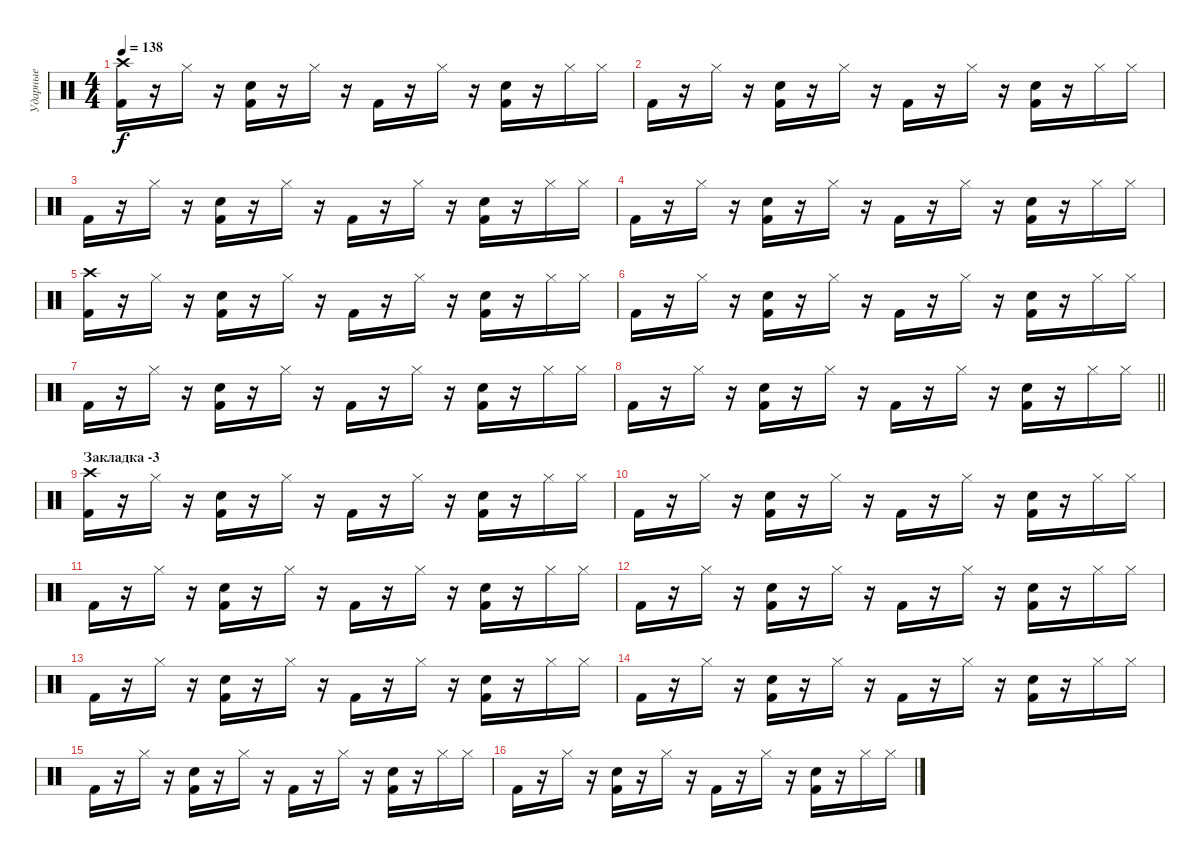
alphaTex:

\track ("Ударные" "Ударные") {instrument percussion}
\staff {score}
\articulation defaults
\ts (4 4)
\tempo 138
\clef neutral
\ks c
("Crash high (hit)" "Kick (hit) 2").16{dy f} r.16 "Hi-Hat (closed)".16 r.16 ("Electric Snare (hit)" "Kick (hit) 2").16 r.16 "Hi-Hat (closed)".16 r.16 "Kick (hit) 2".16 r.16 "Hi-Hat (closed)".16 r.16 ("Electric Snare (hit)" "Kick (hit) 2").16 r.16 "Hi-Hat (closed)".16 "Hi-Hat (closed)".16 |
"Kick (hit) 2".16 r.16 "Hi-Hat (closed)".16 r.16 ("Electric Snare (hit)" "Kick (hit) 2").16 r.16 "Hi-Hat (closed)".16 r.16 "Kick (hit) 2".16 r.16 "Hi-Hat (closed)".16 r.16 ("Electric Snare (hit)" "Kick (hit) 2").16 r.16 "Hi-Hat (closed)".16 "Hi-Hat (closed)".16 |
"Kick (hit) 2".16 r.16 "Hi-Hat (closed)".16 r.16 ("Electric Snare (hit)" "Kick (hit) 2").16 r.16 "Hi-Hat (closed)".16 r.16 "Kick (hit) 2".16 r.16 "Hi-Hat (closed)".16 r.16 ("Electric Snare (hit)" "Kick (hit) 2").16 r.16 "Hi-Hat (closed)".16 "Hi-Hat (closed)".16 |
"Kick (hit) 2".16 r.16 "Hi-Hat (closed)".16 r.16 ("Electric Snare (hit)" "Kick (hit) 2").16 r.16 "Hi-Hat (closed)".16 r.16 "Kick (hit) 2".16 r.16 "Hi-Hat (closed)".16 r.16 ("Electric Snare (hit)" "Kick (hit) 2").16 r.16 "Hi-Hat (closed)".16 "Hi-Hat (closed)".16 |
("Crash high (hit)" "Kick (hit) 2").16 r.16 "Hi-Hat (closed)".16 r.16 ("Electric Snare (hit)" "Kick (hit) 2").16 r.16 "Hi-Hat (closed)".16 r.16 "Kick (hit) 2".16 r.16 "Hi-Hat (closed)".16 r.16 ("Electric Snare (hit)" "Kick (hit) 2").16 r.16 "Hi-Hat (closed)".16 "Hi-Hat (closed)".16 |
"Kick (hit) 2".16 r.16 "Hi-Hat (closed)".16 r.16 ("Electric Snare (hit)" "Kick (hit) 2").16 r.16 "Hi-Hat (closed)".16 r.16 "Kick (hit) 2".16 r.16 "Hi-Hat (closed)".16 r.16 ("Electric Snare (hit)" "Kick (hit) 2").16 r.16 "Hi-Hat (closed)".16 "Hi-Hat (closed)".16 |
"Kick (hit) 2".16 r.16 "Hi-Hat (closed)".16 r.16 ("Electric Snare (hit)" "Kick (hit) 2").16 r.16 "Hi-Hat (closed)".16 r.16 "Kick (hit) 2".16 r.16 "Hi-Hat (closed)".16 r.16 ("Electric Snare (hit)" "Kick (hit) 2").16 r.16 "Hi-Hat (closed)".16 "Hi-Hat (closed)".16 |
\barLineRight lightlight "Kick (hit) 2".16
r.16 "Hi-Hat (closed)".16 r.16 ("Electric Snare (hit)" "Kick (hit) 2").16 r.16 "Hi-Hat (closed)".16 r.16 "Kick (hit) 2".16 r.16 "Hi-Hat (closed)".16 r.16 ("Electric Snare (hit)" "Kick (hit) 2").16 r.16 "Hi-Hat (closed)".16 "Hi-Hat (closed)".16 |
\section ("" "Закладка -3")
("Crash high (hit)" "Kick (hit) 2").16 r.16 "Hi-Hat (closed)".16 r.16 ("Electric Snare (hit)" "Kick (hit) 2").16 r.16 "Hi-Hat (closed)".16 r.16 "Kick (hit) 2".16 r.16 "Hi-Hat (closed)".16 r.16 ("Electric Snare (hit)" "Kick (hit) 2").16 r.16 "Hi-Hat (closed)".16 "Hi-Hat (closed)".16 |
"Kick (hit) 2".16 r.16 "Hi-Hat (closed)".16 r.16 ("Electric Snare (hit)" "Kick (hit) 2").16 r.16 "Hi-Hat (closed)".16 r.16 "Kick (hit) 2".16 r.16 "Hi-Hat (closed)".16 r.16 ("Electric Snare (hit)" "Kick (hit) 2").16 r.16 "Hi-Hat (closed)".16 "Hi-Hat (closed)".16 |
"Kick (hit) 2".16 r.16 "Hi-Hat (closed)".16 r.16 ("Electric Snare (hit)" "Kick (hit) 2").16 r.16 "Hi-Hat (closed)".16 r.16 "Kick (hit) 2".16 r.16 "Hi-Hat (closed)".16 r.16 ("Electric Snare (hit)" "Kick (hit) 2").16 r.16 "Hi-Hat (closed)".16 "Hi-Hat (closed)".16 |
"Kick (hit) 2".16 r.16 "Hi-Hat (closed)".16 r.16 ("Electric Snare (hit)" "Kick (hit) 2").16 r.16 "Hi-Hat (closed)".16 r.16 "Kick (hit) 2".16 r.16 "Hi-Hat (closed)".16 r.16 ("Electric Snare (hit)" "Kick (hit) 2").16 r.16 "Hi-Hat (closed)".16 "Hi-Hat (closed)".16 |
"Kick (hit) 2".16 r.16 "Hi-Hat (closed)".16 r.16 ("Electric Snare (hit)" "Kick (hit) 2").16 r.16 "Hi-Hat (closed)".16 r.16 "Kick (hit) 2".16 r.16 "Hi-Hat (closed)".16 r.16 ("Electric Snare (hit)" "Kick (hit) 2").16 r.16 "Hi-Hat (closed)".16 "Hi-Hat (closed)".16 |
"Kick (hit) 2".16 r.16 "Hi-Hat (closed)".16 r.16 ("Electric Snare (hit)" "Kick (hit) 2").16 r.16 "Hi-Hat (closed)".16 r.16 "Kick (hit) 2".16 r.16 "Hi-Hat (closed)".16 r.16 ("Electric Snare (hit)" "Kick (hit) 2").16 r.16 "Hi-Hat (closed)".16 "Hi-Hat (closed)".16 |
"Kick (hit) 2".16 r.16 "Hi-Hat (closed)".16 r.16 ("Electric Snare (hit)" "Kick (hit) 2").16 r.16 "Hi-Hat (closed)".16 r.16 "Kick (hit) 2".16 r.16 "Hi-Hat (closed)".16 r.16 ("Electric Snare (hit)" "Kick (hit) 2").16 r.16 "Hi-Hat (closed)".16 "Hi-Hat (closed)".16 |
"Kick (hit) 2".16 r.16 "Hi-Hat (closed)".16 r.16 ("Electric Snare (hit)" "Kick (hit) 2").16 r.16 "Hi-Hat (closed)".16 r.16 "Kick (hit) 2".16 r.16 "Hi-Hat (closed)".16 r.16 ("Electric Snare (hit)" "Kick (hit) 2").16 r.16 "Hi-Hat (closed)".16 "Hi-Hat (closed)".16
